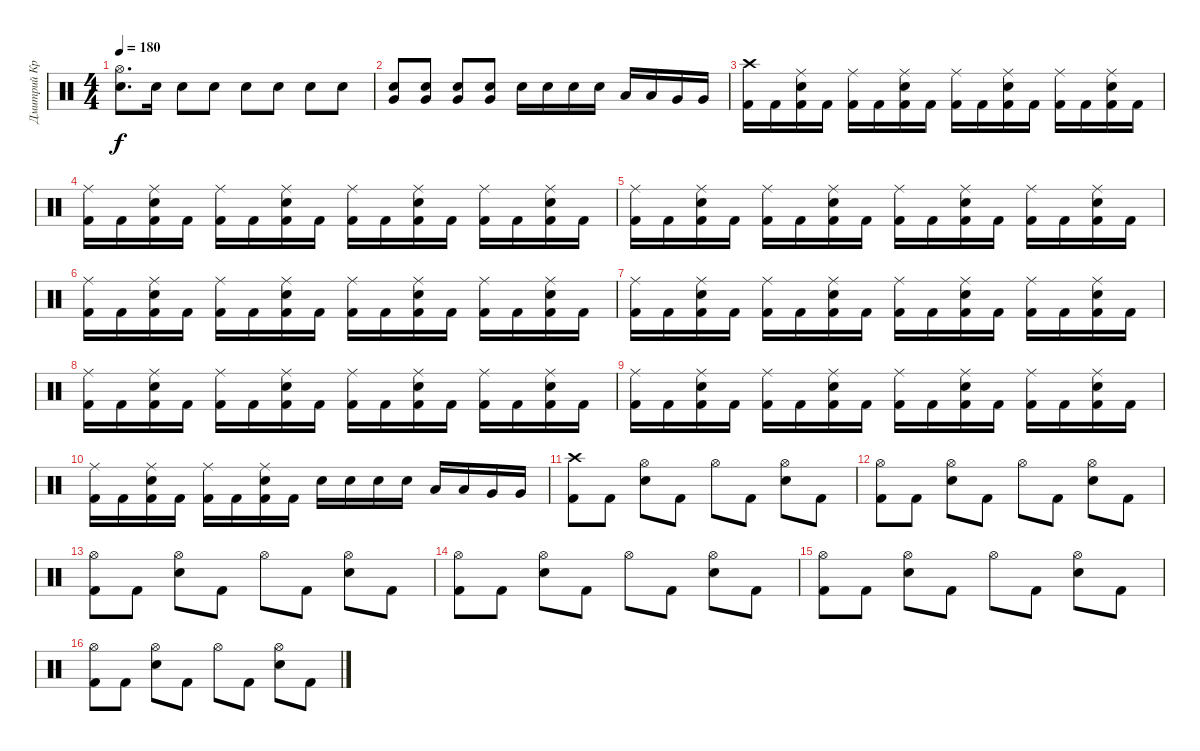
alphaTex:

\track ("Дмитрий Кривенков" "Дмитрий Кр") {instrument percussion}
\staff {score}
\articulation defaults
\ts (4 4)
\tempo 180
\clef neutral
\ks c
("Hi-Hat (open)" "Electric Snare (hit)").8{d dy f} "Electric Snare (hit)".16 "Electric Snare (hit)".8 "Electric Snare (hit)".8 "Electric Snare (hit)".8 "Electric Snare (hit)".8 "Electric Snare (hit)".8 "Electric Snare (hit)".8 |
("Electric Snare (hit)" "Very Low Tom (hit)").8 ("Electric Snare (hit)" "Very Low Tom (hit)").8 ("Electric Snare (hit)" "Very Low Tom (hit)").8 ("Electric Snare (hit)" "Very Low Tom (hit)").8 "Electric Snare (hit)".16 "Electric Snare (hit)".16 "Electric Snare (hit)".16 "Electric Snare (hit)".16 "Low Tom (hit)".16 "Low Tom (hit)".16 "Very Low Tom (hit)".16 "Very Low Tom (hit)".16 |
("Crash high (hit)" "Kick (hit) 2").16 "Kick (hit) 2".16 ("Ride (middle)" "Electric Snare (hit)" "Kick (hit) 2").16 "Kick (hit) 2".16 ("Ride (middle)" "Kick (hit) 2").16 "Kick (hit) 2".16 ("Ride (middle)" "Electric Snare (hit)" "Kick (hit) 2").16 "Kick (hit) 2".16 ("Ride (middle)" "Kick (hit) 2").16 "Kick (hit) 2".16 ("Ride (middle)" "Electric Snare (hit)" "Kick (hit) 2").16 "Kick (hit) 2".16 ("Ride (middle)" "Kick (hit) 2").16 "Kick (hit) 2".16 ("Ride (middle)" "Electric Snare (hit)" "Kick (hit) 2").16 "Kick (hit) 2".16 |
("Ride (middle)" "Kick (hit) 2").16 "Kick (hit) 2".16 ("Ride (middle)" "Electric Snare (hit)" "Kick (hit) 2").16 "Kick (hit) 2".16 ("Ride (middle)" "Kick (hit) 2").16 "Kick (hit) 2".16 ("Ride (middle)" "Electric Snare (hit)" "Kick (hit) 2").16 "Kick (hit) 2".16 ("Ride (middle)" "Kick (hit) 2").16 "Kick (hit) 2".16 ("Ride (middle)" "Electric Snare (hit)" "Kick (hit) 2").16 "Kick (hit) 2".16 ("Ride (middle)" "Kick (hit) 2").16 "Kick (hit) 2".16 ("Ride (middle)" "Electric Snare (hit)" "Kick (hit) 2").16 "Kick (hit) 2".16 |
("Ride (middle)" "Kick (hit) 2").16 "Kick (hit) 2".16 ("Ride (middle)" "Electric Snare (hit)" "Kick (hit) 2").16 "Kick (hit) 2".16 ("Ride (middle)" "Kick (hit) 2").16 "Kick (hit) 2".16 ("Ride (middle)" "Electric Snare (hit)" "Kick (hit) 2").16 "Kick (hit) 2".16 ("Ride (middle)" "Kick (hit) 2").16 "Kick (hit) 2".16 ("Ride (middle)" "Electric Snare (hit)" "Kick (hit) 2").16 "Kick (hit) 2".16 ("Ride (middle)" "Kick (hit) 2").16 "Kick (hit) 2".16 ("Ride (middle)" "Electric Snare (hit)" "Kick (hit) 2").16 "Kick (hit) 2".16 |
("Ride (middle)" "Kick (hit) 2").16 "Kick (hit) 2".16 ("Ride (middle)" "Electric Snare (hit)" "Kick (hit) 2").16 "Kick (hit) 2".16 ("Ride (middle)" "Kick (hit) 2").16 "Kick (hit) 2".16 ("Ride (middle)" "Electric Snare (hit)" "Kick (hit) 2").16 "Kick (hit) 2".16 ("Ride (middle)" "Kick (hit) 2").16 "Kick (hit) 2".16 ("Ride (middle)" "Electric Snare (hit)" "Kick (hit) 2").16 "Kick (hit) 2".16 ("Ride (middle)" "Kick (hit) 2").16 "Kick (hit) 2".16 ("Ride (middle)" "Electric Snare (hit)" "Kick (hit) 2").16 "Kick (hit) 2".16 |
("Ride (middle)" "Kick (hit) 2").16 "Kick (hit) 2".16 ("Ride (middle)" "Electric Snare (hit)" "Kick (hit) 2").16 "Kick (hit) 2".16 ("Ride (middle)" "Kick (hit) 2").16 "Kick (hit) 2".16 ("Ride (middle)" "Electric Snare (hit)" "Kick (hit) 2").16 "Kick (hit) 2".16 ("Ride (middle)" "Kick (hit) 2").16 "Kick (hit) 2".16 ("Ride (middle)" "Electric Snare (hit)" "Kick (hit) 2").16 "Kick (hit) 2".16 ("Ride (middle)" "Kick (hit) 2").16 "Kick (hit) 2".16 ("Ride (middle)" "Electric Snare (hit)" "Kick (hit) 2").16 "Kick (hit) 2".16 |
("Ride (middle)" "Kick (hit) 2").16 "Kick (hit) 2".16 ("Ride (middle)" "Electric Snare (hit)" "Kick (hit) 2").16 "Kick (hit) 2".16 ("Ride (middle)" "Kick (hit) 2").16 "Kick (hit) 2".16 ("Ride (middle)" "Electric Snare (hit)" "Kick (hit) 2").16 "Kick (hit) 2".16 ("Ride (middle)" "Kick (hit) 2").16 "Kick (hit) 2".16 ("Ride (middle)" "Electric Snare (hit)" "Kick (hit) 2").16 "Kick (hit) 2".16 ("Ride (middle)" "Kick (hit) 2").16 "Kick (hit) 2".16 ("Ride (middle)" "Electric Snare (hit)" "Kick (hit) 2").16 "Kick (hit) 2".16 |
("Ride (middle)" "Kick (hit) 2").16 "Kick (hit) 2".16 ("Ride (middle)" "Electric Snare (hit)" "Kick (hit) 2").16 "Kick (hit) 2".16 ("Ride (middle)" "Kick (hit) 2").16 "Kick (hit) 2".16 ("Ride (middle)" "Electric Snare (hit)" "Kick (hit) 2").16 "Kick (hit) 2".16 ("Ride (middle)" "Kick (hit) 2").16 "Kick (hit) 2".16 ("Ride (middle)" "Electric Snare (hit)" "Kick (hit) 2").16 "Kick (hit) 2".16 ("Ride (middle)" "Kick (hit) 2").16 "Kick (hit) 2".16 ("Ride (middle)" "Electric Snare (hit)" "Kick (hit) 2").16 "Kick (hit) 2".16 |
("Ride (middle)" "Kick (hit) 2").16 "Kick (hit) 2".16 ("Ride (middle)" "Electric Snare (hit)" "Kick (hit) 2").16 "Kick (hit) 2".16 ("Ride (middle)" "Kick (hit) 2").16 "Kick (hit) 2".16 ("Ride (middle)" "Electric Snare (hit)" "Kick (hit) 2").16 "Kick (hit) 2".16 "Electric Snare (hit)".16 "Electric Snare (hit)".16 "Electric Snare (hit)".16 "Electric Snare (hit)".16 "Low Tom (hit)".16 "Low Tom (hit)".16 "Very Low Tom (hit)".16 "Very Low Tom (hit)".16 |
("Crash high (hit)" "Kick (hit) 2").8 "Kick (hit) 2".8 ("Hi-Hat (open)" "Electric Snare (hit)").8 "Kick (hit) 2".8 "Hi-Hat (open)".8 "Kick (hit) 2".8 ("Hi-Hat (open)" "Electric Snare (hit)").8 "Kick (hit) 2".8 |
("Hi-Hat (open)" "Kick (hit) 2").8 "Kick (hit) 2".8 ("Hi-Hat (open)" "Electric Snare (hit)").8 "Kick (hit) 2".8 "Hi-Hat (open)".8 "Kick (hit) 2".8 ("Hi-Hat (open)" "Electric Snare (hit)").8 "Kick (hit) 2".8 |
("Hi-Hat (open)" "Kick (hit) 2").8 "Kick (hit) 2".8 ("Hi-Hat (open)" "Electric Snare (hit)").8 "Kick (hit) 2".8 "Hi-Hat (open)".8 "Kick (hit) 2".8 ("Hi-Hat (open)" "Electric Snare (hit)").8 "Kick (hit) 2".8 |
("Hi-Hat (open)" "Kick (hit) 2").8 "Kick (hit) 2".8 ("Hi-Hat (open)" "Electric Snare (hit)").8 "Kick (hit) 2".8 "Hi-Hat (open)".8 "Kick (hit) 2".8 ("Hi-Hat (open)" "Electric Snare (hit)").8 "Kick (hit) 2".8 |
("Hi-Hat (open)" "Kick (hit) 2").8 "Kick (hit) 2".8 ("Hi-Hat (open)" "Electric Snare (hit)").8 "Kick (hit) 2".8 "Hi-Hat (open)".8 "Kick (hit) 2".8 ("Hi-Hat (open)" "Electric Snare (hit)").8 "Kick (hit) 2".8 |
("Hi-Hat (open)" "Kick (hit) 2").8 "Kick (hit) 2".8 ("Hi-Hat (open)" "Electric Snare (hit)").8 "Kick (hit) 2".8 "Hi-Hat (open)".8 "Kick (hit) 2".8 ("Hi-Hat (open)" "Electric Snare (hit)").8 "Kick (hit) 2".8
